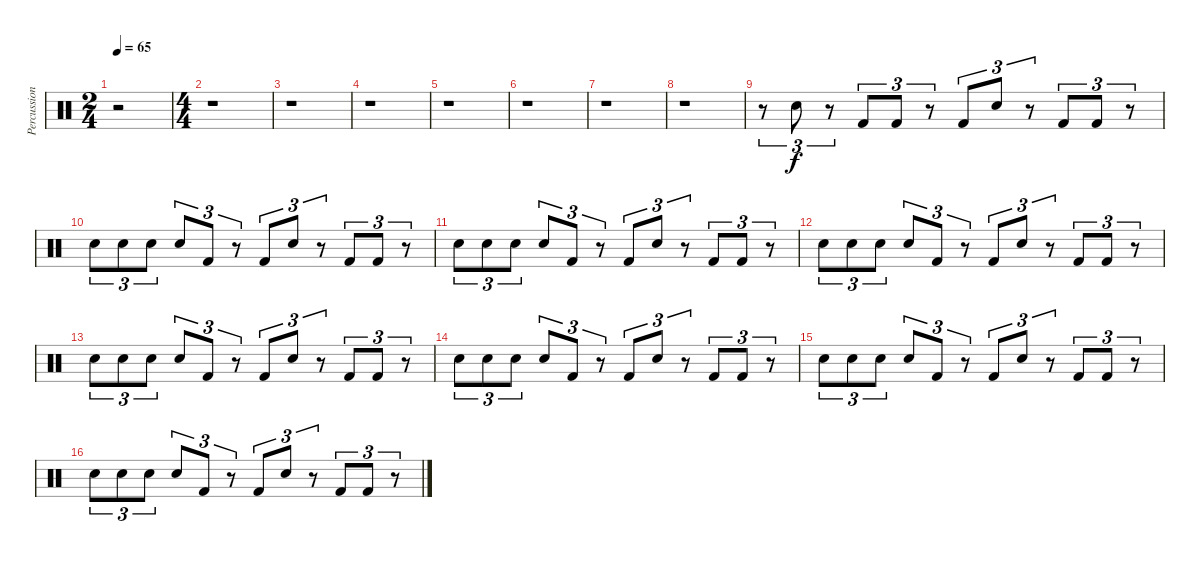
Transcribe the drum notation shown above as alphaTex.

\track ("Percussions" "Percussion") {instrument percussion}
\staff {score}
\articulation defaults
\ts (2 4)
\tempo 65
\clef neutral
\ks c
r.2{dy f} |
\ts (4 4)
r.1 |
r.1 |
r.1 |
r.1 |
r.1 |
r.1 |
r.1 |
r.8{tu (3 2)} "Electric Snare (hit)".8{tu (3 2)} r.8{tu (3 2)} "Kick (hit) 2".8{tu (3 2)} "Kick (hit) 2".8{tu (3 2)} r.8{tu (3 2)} "Kick (hit) 2".8{tu (3 2)} "Electric Snare (hit)".8{tu (3 2)} r.8{tu (3 2)} "Kick (hit) 2".8{tu (3 2)} "Kick (hit) 2".8{tu (3 2)} r.8{tu (3 2)} |
"Electric Snare (hit)".8{tu (3 2)} "Electric Snare (hit)".8{tu (3 2)} "Electric Snare (hit)".8{tu (3 2)} "Electric Snare (hit)".8{tu (3 2)} "Kick (hit) 2".8{tu (3 2)} r.8{tu (3 2)} "Kick (hit) 2".8{tu (3 2)} "Electric Snare (hit)".8{tu (3 2)} r.8{tu (3 2)} "Kick (hit) 2".8{tu (3 2)} "Kick (hit) 2".8{tu (3 2)} r.8{tu (3 2)} |
"Electric Snare (hit)".8{tu (3 2)} "Electric Snare (hit)".8{tu (3 2)} "Electric Snare (hit)".8{tu (3 2)} "Electric Snare (hit)".8{tu (3 2)} "Kick (hit) 2".8{tu (3 2)} r.8{tu (3 2)} "Kick (hit) 2".8{tu (3 2)} "Electric Snare (hit)".8{tu (3 2)} r.8{tu (3 2)} "Kick (hit) 2".8{tu (3 2)} "Kick (hit) 2".8{tu (3 2)} r.8{tu (3 2)} |
"Electric Snare (hit)".8{tu (3 2)} "Electric Snare (hit)".8{tu (3 2)} "Electric Snare (hit)".8{tu (3 2)} "Electric Snare (hit)".8{tu (3 2)} "Kick (hit) 2".8{tu (3 2)} r.8{tu (3 2)} "Kick (hit) 2".8{tu (3 2)} "Electric Snare (hit)".8{tu (3 2)} r.8{tu (3 2)} "Kick (hit) 2".8{tu (3 2)} "Kick (hit) 2".8{tu (3 2)} r.8{tu (3 2)} |
"Electric Snare (hit)".8{tu (3 2)} "Electric Snare (hit)".8{tu (3 2)} "Electric Snare (hit)".8{tu (3 2)} "Electric Snare (hit)".8{tu (3 2)} "Kick (hit) 2".8{tu (3 2)} r.8{tu (3 2)} "Kick (hit) 2".8{tu (3 2)} "Electric Snare (hit)".8{tu (3 2)} r.8{tu (3 2)} "Kick (hit) 2".8{tu (3 2)} "Kick (hit) 2".8{tu (3 2)} r.8{tu (3 2)} |
"Electric Snare (hit)".8{tu (3 2)} "Electric Snare (hit)".8{tu (3 2)} "Electric Snare (hit)".8{tu (3 2)} "Electric Snare (hit)".8{tu (3 2)} "Kick (hit) 2".8{tu (3 2)} r.8{tu (3 2)} "Kick (hit) 2".8{tu (3 2)} "Electric Snare (hit)".8{tu (3 2)} r.8{tu (3 2)} "Kick (hit) 2".8{tu (3 2)} "Kick (hit) 2".8{tu (3 2)} r.8{tu (3 2)} |
"Electric Snare (hit)".8{tu (3 2)} "Electric Snare (hit)".8{tu (3 2)} "Electric Snare (hit)".8{tu (3 2)} "Electric Snare (hit)".8{tu (3 2)} "Kick (hit) 2".8{tu (3 2)} r.8{tu (3 2)} "Kick (hit) 2".8{tu (3 2)} "Electric Snare (hit)".8{tu (3 2)} r.8{tu (3 2)} "Kick (hit) 2".8{tu (3 2)} "Kick (hit) 2".8{tu (3 2)} r.8{tu (3 2)} |
"Electric Snare (hit)".8{tu (3 2)} "Electric Snare (hit)".8{tu (3 2)} "Electric Snare (hit)".8{tu (3 2)} "Electric Snare (hit)".8{tu (3 2)} "Kick (hit) 2".8{tu (3 2)} r.8{tu (3 2)} "Kick (hit) 2".8{tu (3 2)} "Electric Snare (hit)".8{tu (3 2)} r.8{tu (3 2)} "Kick (hit) 2".8{tu (3 2)} "Kick (hit) 2".8{tu (3 2)} r.8{tu (3 2)}
